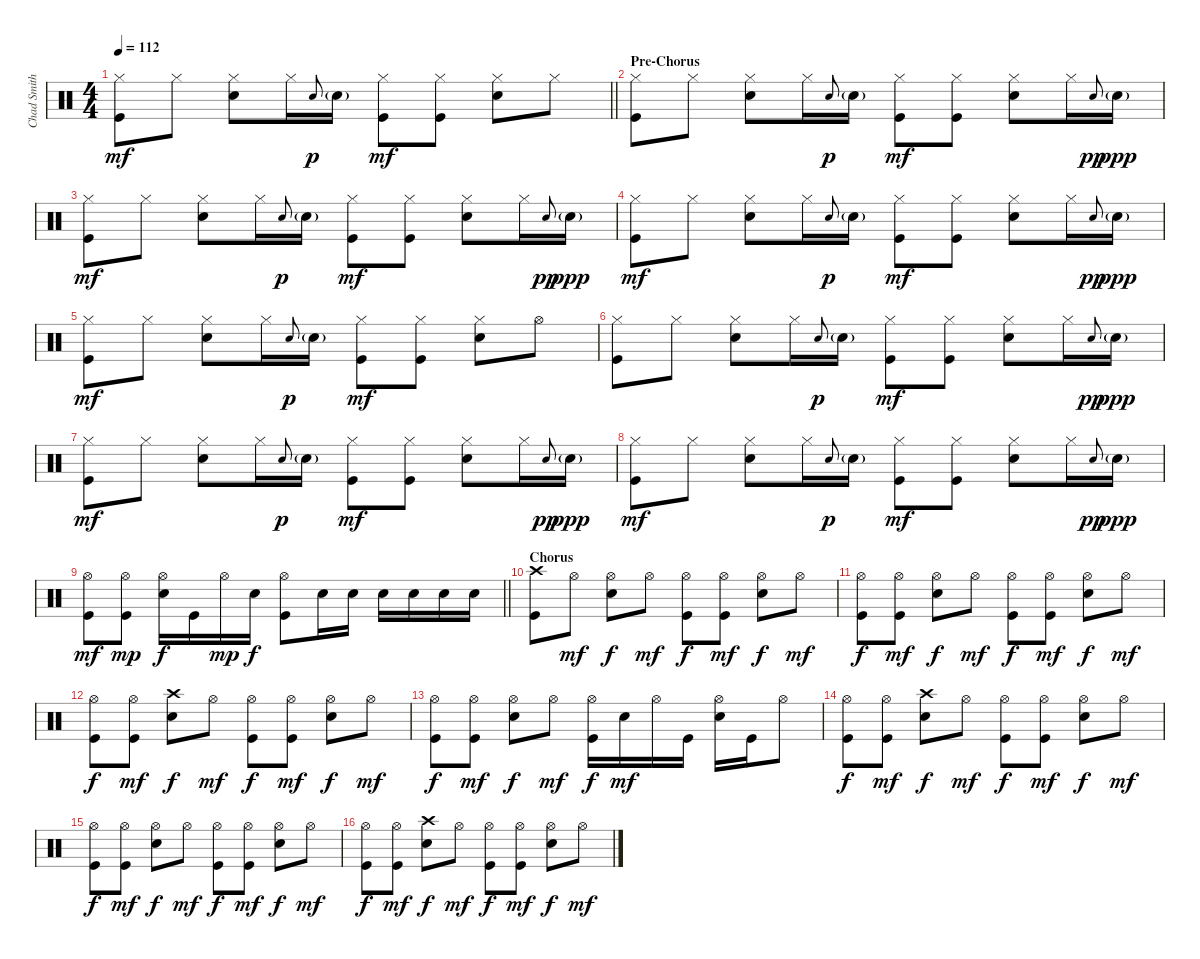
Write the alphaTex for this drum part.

\track ("Chad Smith" "Chad Smith") {instrument percussion}
\staff {score}
\articulation defaults
\ts (4 4)
\tempo 112
\clef neutral
\barLineRight lightlight
\ks c
("Hi-Hat (closed)" "Kick (hit)").8{dy mf} "Hi-Hat (closed)".8 ("Hi-Hat (closed)" "Snare (hit) 2").8 "Hi-Hat (closed)".16 "Snare (hit) 2".8{gr onbeat dy p} "Snare (hit) 2"{g}.16 ("Hi-Hat (closed)" "Kick (hit)").8{dy mf} ("Hi-Hat (closed)" "Kick (hit)").8 ("Hi-Hat (closed)" "Snare (hit) 2").8 "Hi-Hat (closed)".8 |
\section ("" "Pre-Chorus")
("Hi-Hat (closed)" "Kick (hit)").8 "Hi-Hat (closed)".8 ("Hi-Hat (closed)" "Snare (hit) 2").8 "Hi-Hat (closed)".16 "Snare (hit) 2".8{gr onbeat dy p} "Snare (hit) 2"{g}.16 ("Hi-Hat (closed)" "Kick (hit)").8{dy mf} ("Hi-Hat (closed)" "Kick (hit)").8 ("Hi-Hat (closed)" "Snare (hit) 2").8 "Hi-Hat (closed)".16 "Snare (hit) 2".8{gr onbeat dy pp} "Snare (hit) 2"{g}.16{dy ppp} |
("Hi-Hat (closed)" "Kick (hit)").8{dy mf} "Hi-Hat (closed)".8 ("Hi-Hat (closed)" "Snare (hit) 2").8 "Hi-Hat (closed)".16 "Snare (hit) 2".8{gr onbeat dy p} "Snare (hit) 2"{g}.16 ("Hi-Hat (closed)" "Kick (hit)").8{dy mf} ("Hi-Hat (closed)" "Kick (hit)").8 ("Hi-Hat (closed)" "Snare (hit) 2").8 "Hi-Hat (closed)".16 "Snare (hit) 2".8{gr onbeat dy pp} "Snare (hit) 2"{g}.16{dy ppp} |
("Hi-Hat (closed)" "Kick (hit)").8{dy mf} "Hi-Hat (closed)".8 ("Hi-Hat (closed)" "Snare (hit) 2").8 "Hi-Hat (closed)".16 "Snare (hit) 2".8{gr onbeat dy p} "Snare (hit) 2"{g}.16 ("Hi-Hat (closed)" "Kick (hit)").8{dy mf} ("Hi-Hat (closed)" "Kick (hit)").8 ("Hi-Hat (closed)" "Snare (hit) 2").8 "Hi-Hat (closed)".16 "Snare (hit) 2".8{gr onbeat dy pp} "Snare (hit) 2"{g}.16{dy ppp} |
("Hi-Hat (closed)" "Kick (hit)").8{dy mf} "Hi-Hat (closed)".8 ("Hi-Hat (closed)" "Snare (hit) 2").8 "Hi-Hat (closed)".16 "Snare (hit) 2".8{gr onbeat dy p} "Snare (hit) 2"{g}.16 ("Hi-Hat (closed)" "Kick (hit)").8{dy mf} ("Hi-Hat (closed)" "Kick (hit)").8 ("Hi-Hat (closed)" "Snare (hit) 2").8 "Hi-Hat (open)".8 |
("Hi-Hat (closed)" "Kick (hit)").8 "Hi-Hat (closed)".8 ("Hi-Hat (closed)" "Snare (hit) 2").8 "Hi-Hat (closed)".16 "Snare (hit) 2".8{gr onbeat dy p} "Snare (hit) 2"{g}.16 ("Hi-Hat (closed)" "Kick (hit)").8{dy mf} ("Hi-Hat (closed)" "Kick (hit)").8 ("Hi-Hat (closed)" "Snare (hit) 2").8 "Hi-Hat (closed)".16 "Snare (hit) 2".8{gr onbeat dy pp} "Snare (hit) 2"{g}.16{dy ppp} |
("Hi-Hat (closed)" "Kick (hit)").8{dy mf} "Hi-Hat (closed)".8 ("Hi-Hat (closed)" "Snare (hit) 2").8 "Hi-Hat (closed)".16 "Snare (hit) 2".8{gr onbeat dy p} "Snare (hit) 2"{g}.16 ("Hi-Hat (closed)" "Kick (hit)").8{dy mf} ("Hi-Hat (closed)" "Kick (hit)").8 ("Hi-Hat (closed)" "Snare (hit) 2").8 "Hi-Hat (closed)".16 "Snare (hit) 2".8{gr onbeat dy pp} "Snare (hit) 2"{g}.16{dy ppp} |
("Hi-Hat (closed)" "Kick (hit)").8{dy mf} "Hi-Hat (closed)".8 ("Hi-Hat (closed)" "Snare (hit) 2").8 "Hi-Hat (closed)".16 "Snare (hit) 2".8{gr onbeat dy p} "Snare (hit) 2"{g}.16 ("Hi-Hat (closed)" "Kick (hit)").8{dy mf} ("Hi-Hat (closed)" "Kick (hit)").8 ("Hi-Hat (closed)" "Snare (hit) 2").8 "Hi-Hat (closed)".16 "Snare (hit) 2".8{gr onbeat dy pp} "Snare (hit) 2"{g}.16{dy ppp} |
\barLineRight lightlight
("Hi-Hat (open)" "Kick (hit)").8{dy mf} ("Hi-Hat (open)" "Kick (hit)").8{dy mp} ("Hi-Hat (open)" "Snare (hit) 2").16{dy f} "Kick (hit)".16 "Hi-Hat (open)".16{dy mp} "Snare (hit) 2".16{dy f} ("Hi-Hat (open)" "Kick (hit)").8 "Snare (hit) 2".16 "Snare (hit) 2".16 "Snare (hit) 2".16 "Snare (hit) 2".16 "Snare (hit) 2".16 "Snare (hit) 2".16 |
\section ("" "Chorus")
("Crash high (hit)" "Kick (hit)").8 "Hi-Hat (open)".8{dy mf} ("Hi-Hat (open)" "Snare (hit) 2").8{dy f} "Hi-Hat (open)".8{dy mf} ("Kick (hit)" "Hi-Hat (open)").8{dy f} ("Kick (hit)" "Hi-Hat (open)").8{dy mf} ("Snare (hit) 2" "Hi-Hat (open)").8{dy f} "Hi-Hat (open)".8{dy mf} |
("Hi-Hat (open)" "Kick (hit)").8{dy f} ("Hi-Hat (open)" "Kick (hit)").8{dy mf} ("Hi-Hat (open)" "Snare (hit) 2").8{dy f} "Hi-Hat (open)".8{dy mf} ("Kick (hit)" "Hi-Hat (open)").8{dy f} ("Kick (hit)" "Hi-Hat (open)").8{dy mf} ("Snare (hit) 2" "Hi-Hat (open)").8{dy f} "Hi-Hat (open)".8{dy mf} |
("Hi-Hat (open)" "Kick (hit)").8{dy f} ("Hi-Hat (open)" "Kick (hit)").8{dy mf} ("Crash high (hit)" "Snare (hit) 2").8{dy f} "Hi-Hat (open)".8{dy mf} ("Kick (hit)" "Hi-Hat (open)").8{dy f} ("Kick (hit)" "Hi-Hat (open)").8{dy mf} ("Snare (hit) 2" "Hi-Hat (open)").8{dy f} "Hi-Hat (open)".8{dy mf} |
("Hi-Hat (open)" "Kick (hit)").8{dy f} ("Hi-Hat (open)" "Kick (hit)").8{dy mf} ("Hi-Hat (open)" "Snare (hit) 2").8{dy f} "Hi-Hat (open)".8{dy mf} ("Kick (hit)" "Hi-Hat (open)").16{dy f} "Snare (hit) 2".16{dy mf} "Hi-Hat (open)".16 "Kick (hit)".16 ("Hi-Hat (open)" "Snare (hit) 2").16 "Kick (hit)".16 "Hi-Hat (open)".8 |
("Hi-Hat (open)" "Kick (hit)").8{dy f} ("Hi-Hat (open)" "Kick (hit)").8{dy mf} ("Crash high (hit)" "Snare (hit) 2").8{dy f} "Hi-Hat (open)".8{dy mf} ("Kick (hit)" "Hi-Hat (open)").8{dy f} ("Kick (hit)" "Hi-Hat (open)").8{dy mf} ("Snare (hit) 2" "Hi-Hat (open)").8{dy f} "Hi-Hat (open)".8{dy mf} |
("Hi-Hat (open)" "Kick (hit)").8{dy f} ("Hi-Hat (open)" "Kick (hit)").8{dy mf} ("Hi-Hat (open)" "Snare (hit) 2").8{dy f} "Hi-Hat (open)".8{dy mf} ("Kick (hit)" "Hi-Hat (open)").8{dy f} ("Kick (hit)" "Hi-Hat (open)").8{dy mf} ("Snare (hit) 2" "Hi-Hat (open)").8{dy f} "Hi-Hat (open)".8{dy mf} |
("Hi-Hat (open)" "Kick (hit)").8{dy f} ("Hi-Hat (open)" "Kick (hit)").8{dy mf} ("Crash high (hit)" "Snare (hit) 2").8{dy f} "Hi-Hat (open)".8{dy mf} ("Kick (hit)" "Hi-Hat (open)").8{dy f} ("Kick (hit)" "Hi-Hat (open)").8{dy mf} ("Snare (hit) 2" "Hi-Hat (open)").8{dy f} "Hi-Hat (open)".8{dy mf}
